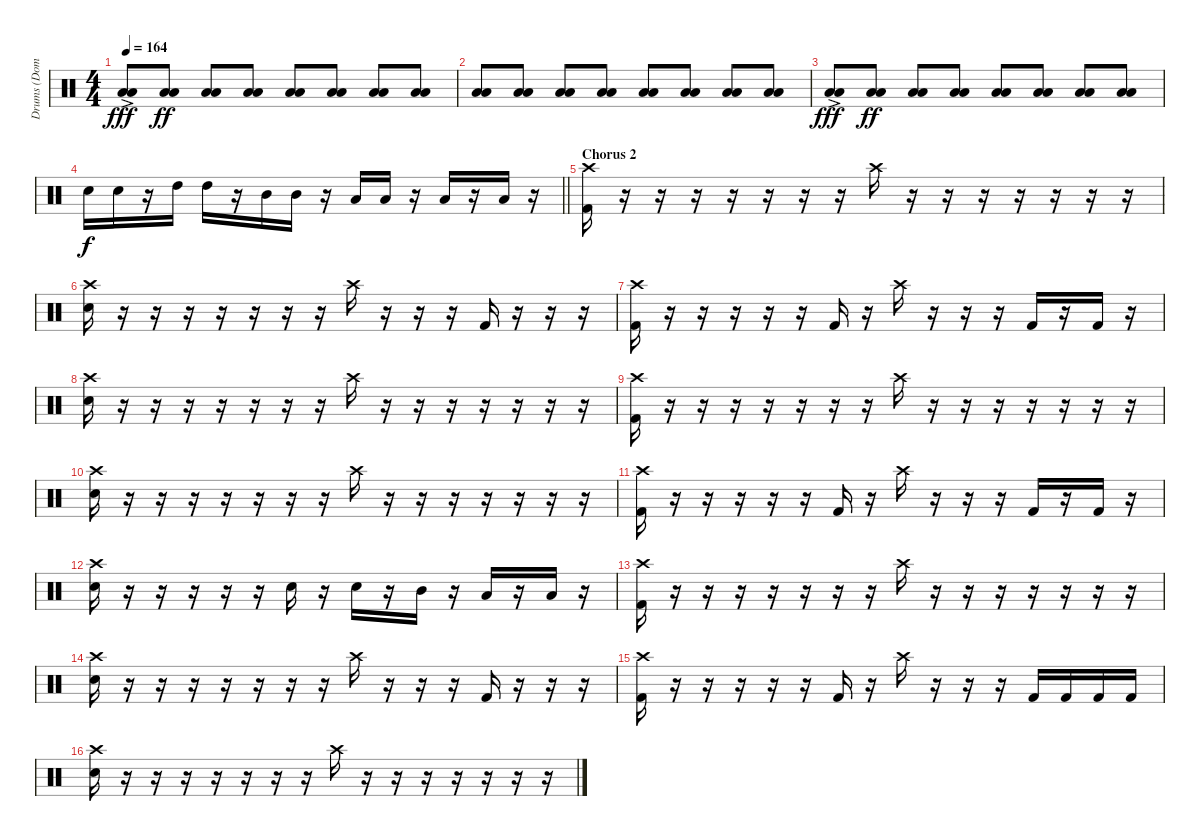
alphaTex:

\track ("Drums (Dominik)" "Drums (Dom") {instrument percussion}
\staff {score}
\articulation defaults
\ts (4 4)
\tempo 164
\clef neutral
\ks c
("Low Tom (hit)"{ac} "Low Floor Tom (hit)"{ac}).8{dy fff} ("Low Tom (hit)" "Low Floor Tom (hit)").8{dy ff} ("Low Tom (hit)" "Low Floor Tom (hit)").8 ("Low Tom (hit)" "Low Floor Tom (hit)").8 ("Low Tom (hit)" "Low Floor Tom (hit)").8 ("Low Tom (hit)" "Low Floor Tom (hit)").8 ("Low Tom (hit)" "Low Floor Tom (hit)").8 ("Low Tom (hit)" "Low Floor Tom (hit)").8 |
("Low Tom (hit)" "Low Floor Tom (hit)").8 ("Low Tom (hit)" "Low Floor Tom (hit)").8 ("Low Tom (hit)" "Low Floor Tom (hit)").8 ("Low Tom (hit)" "Low Floor Tom (hit)").8 ("Low Tom (hit)" "Low Floor Tom (hit)").8 ("Low Tom (hit)" "Low Floor Tom (hit)").8 ("Low Tom (hit)" "Low Floor Tom (hit)").8 ("Low Tom (hit)" "Low Floor Tom (hit)").8 |
("Low Tom (hit)"{ac} "Low Floor Tom (hit)"{ac}).8{dy fff} ("Low Tom (hit)" "Low Floor Tom (hit)").8{dy ff} ("Low Tom (hit)" "Low Floor Tom (hit)").8 ("Low Tom (hit)" "Low Floor Tom (hit)").8 ("Low Tom (hit)" "Low Floor Tom (hit)").8 ("Low Tom (hit)" "Low Floor Tom (hit)").8 ("Low Tom (hit)" "Low Floor Tom (hit)").8 ("Low Tom (hit)" "Low Floor Tom (hit)").8 |
\barLineRight lightlight "Electric Snare (hit)".16{dy f} "Electric Snare (hit)".16
r.16 "High Tom (hit)".16 "High Tom (hit)".16 r.16 "Mid Tom (hit)".16 "Mid Tom (hit)".16 r.16 "Low Tom (hit)".16 "Low Tom (hit)".16 r.16 "Low Floor Tom (hit)".16 r.16 "Low Floor Tom (hit)".16 r.16 |
\section ("" "Chorus 2")
("Crash high (hit)" "Kick (hit) 2").16 r.16 r.16 r.16 r.16 r.16 r.16 r.16 "Crash high (hit)".16 r.16 r.16 r.16 r.16 r.16 r.16 r.16 |
("Crash high (hit)" "Electric Snare (hit)").16 r.16 r.16 r.16 r.16 r.16 r.16 r.16 "Crash high (hit)".16 r.16 r.16 r.16 "Kick (hit) 2".16 r.16 r.16 r.16 |
("Crash high (hit)" "Kick (hit) 2").16 r.16 r.16 r.16 r.16 r.16 "Kick (hit) 2".16 r.16 "Crash high (hit)".16 r.16 r.16 r.16 "Kick (hit) 2".16 r.16 "Kick (hit) 2".16 r.16 |
("Crash high (hit)" "Electric Snare (hit)").16 r.16 r.16 r.16 r.16 r.16 r.16 r.16 "Crash high (hit)".16 r.16 r.16 r.16 r.16 r.16 r.16 r.16 |
("Crash high (hit)" "Kick (hit) 2").16 r.16 r.16 r.16 r.16 r.16 r.16 r.16 "Crash high (hit)".16 r.16 r.16 r.16 r.16 r.16 r.16 r.16 |
("Crash high (hit)" "Electric Snare (hit)").16 r.16 r.16 r.16 r.16 r.16 r.16 r.16 "Crash high (hit)".16 r.16 r.16 r.16 r.16 r.16 r.16 r.16 |
("Crash high (hit)" "Kick (hit) 2").16 r.16 r.16 r.16 r.16 r.16 "Kick (hit) 2".16 r.16 "Crash high (hit)".16 r.16 r.16 r.16 "Kick (hit) 2".16 r.16 "Kick (hit) 2".16 r.16 |
("Crash high (hit)" "Electric Snare (hit)").16 r.16 r.16 r.16 r.16 r.16 "Electric Snare (hit)".16 r.16 "Electric Snare (hit)".16 r.16 "Mid Tom (hit)".16 r.16 "Low Tom (hit)".16 r.16 "Low Floor Tom (hit)".16 r.16 |
("Crash high (hit)" "Kick (hit) 2").16 r.16 r.16 r.16 r.16 r.16 r.16 r.16 "Crash high (hit)".16 r.16 r.16 r.16 r.16 r.16 r.16 r.16 |
("Crash high (hit)" "Electric Snare (hit)").16 r.16 r.16 r.16 r.16 r.16 r.16 r.16 "Crash high (hit)".16 r.16 r.16 r.16 "Kick (hit) 2".16 r.16 r.16 r.16 |
("Crash high (hit)" "Kick (hit) 2").16 r.16 r.16 r.16 r.16 r.16 "Kick (hit) 2".16 r.16 "Crash high (hit)".16 r.16 r.16 r.16 "Kick (hit) 2".16 "Kick (hit) 2".16 "Kick (hit) 2".16 "Kick (hit) 2".16 |
("Crash high (hit)" "Electric Snare (hit)").16 r.16 r.16 r.16 r.16 r.16 r.16 r.16 "Crash high (hit)".16 r.16 r.16 r.16 r.16 r.16 r.16 r.16
